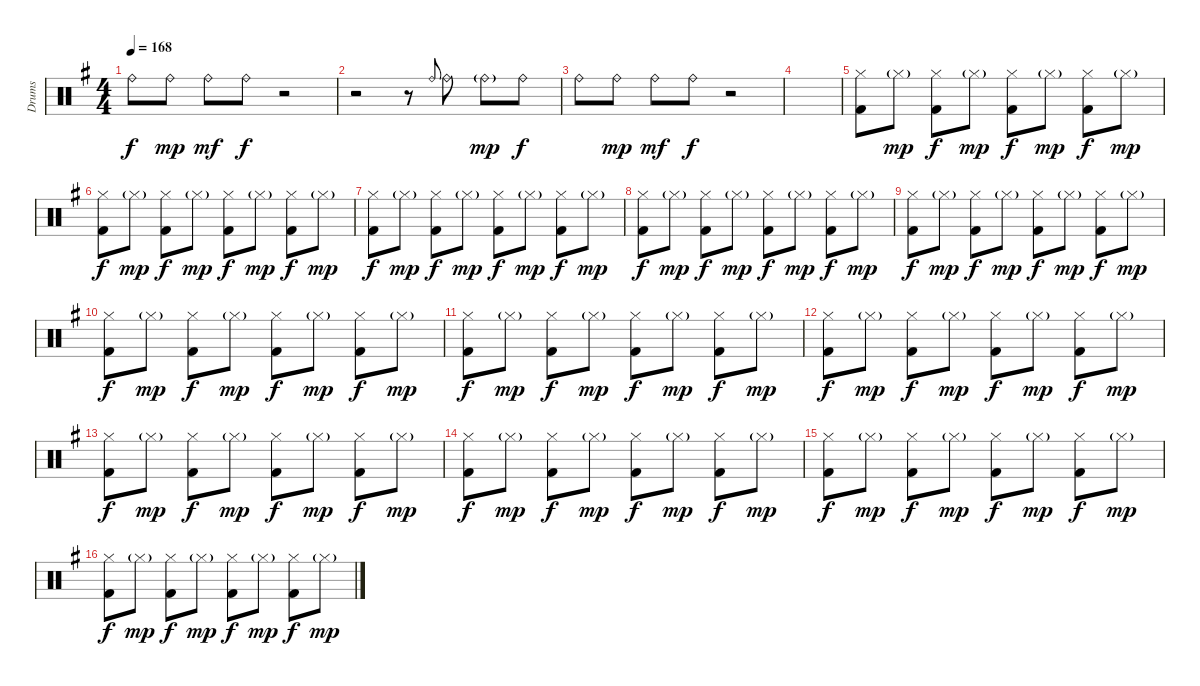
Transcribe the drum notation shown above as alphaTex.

\track ("Drums" "Drums") {instrument percussion}
\staff {score}
\articulation defaults
\ts (4 4)
\tempo 168
\clef neutral
\ks g "Ride (bell)".8{dy f} "Ride (bell)".8{dy mp} "Ride (bell)".8{dy mf} "Ride (bell)".8{dy f}
r.2 |
r.2 r.8 "Ride (bell)".8{gr onbeat} "Ride (bell)".8 "Ride (bell)"{g}.8{dy mp} "Ride (bell)".8{dy f} |
"Ride (bell)".8 "Ride (bell)".8{dy mp} "Ride (bell)".8{dy mf} "Ride (bell)".8{dy f} r.2 |
|
("Hi-Hat (closed)" "Kick (hit) 2").8 "Hi-Hat (closed)"{g}.8{dy mp} ("Hi-Hat (closed)" "Kick (hit) 2").8{dy f} "Hi-Hat (closed)"{g}.8{dy mp} ("Hi-Hat (closed)" "Kick (hit) 2").8{dy f} "Hi-Hat (closed)"{g}.8{dy mp} ("Hi-Hat (closed)" "Kick (hit) 2").8{dy f} "Hi-Hat (closed)"{g}.8{dy mp} |
("Hi-Hat (closed)" "Kick (hit) 2").8{dy f} "Hi-Hat (closed)"{g}.8{dy mp} ("Hi-Hat (closed)" "Kick (hit) 2").8{dy f} "Hi-Hat (closed)"{g}.8{dy mp} ("Hi-Hat (closed)" "Kick (hit) 2").8{dy f} "Hi-Hat (closed)"{g}.8{dy mp} ("Hi-Hat (closed)" "Kick (hit) 2").8{dy f} "Hi-Hat (closed)"{g}.8{dy mp} |
("Hi-Hat (closed)" "Kick (hit) 2").8{dy f} "Hi-Hat (closed)"{g}.8{dy mp} ("Hi-Hat (closed)" "Kick (hit) 2").8{dy f} "Hi-Hat (closed)"{g}.8{dy mp} ("Hi-Hat (closed)" "Kick (hit) 2").8{dy f} "Hi-Hat (closed)"{g}.8{dy mp} ("Hi-Hat (closed)" "Kick (hit) 2").8{dy f} "Hi-Hat (closed)"{g}.8{dy mp} |
("Hi-Hat (closed)" "Kick (hit) 2").8{dy f} "Hi-Hat (closed)"{g}.8{dy mp} ("Hi-Hat (closed)" "Kick (hit) 2").8{dy f} "Hi-Hat (closed)"{g}.8{dy mp} ("Hi-Hat (closed)" "Kick (hit) 2").8{dy f} "Hi-Hat (closed)"{g}.8{dy mp} ("Hi-Hat (closed)" "Kick (hit) 2").8{dy f} "Hi-Hat (closed)"{g}.8{dy mp} |
("Hi-Hat (closed)" "Kick (hit) 2").8{dy f} "Hi-Hat (closed)"{g}.8{dy mp} ("Hi-Hat (closed)" "Kick (hit) 2").8{dy f} "Hi-Hat (closed)"{g}.8{dy mp} ("Hi-Hat (closed)" "Kick (hit) 2").8{dy f} "Hi-Hat (closed)"{g}.8{dy mp} ("Hi-Hat (closed)" "Kick (hit) 2").8{dy f} "Hi-Hat (closed)"{g}.8{dy mp} |
("Hi-Hat (closed)" "Kick (hit) 2").8{dy f} "Hi-Hat (closed)"{g}.8{dy mp} ("Hi-Hat (closed)" "Kick (hit) 2").8{dy f} "Hi-Hat (closed)"{g}.8{dy mp} ("Hi-Hat (closed)" "Kick (hit) 2").8{dy f} "Hi-Hat (closed)"{g}.8{dy mp} ("Hi-Hat (closed)" "Kick (hit) 2").8{dy f} "Hi-Hat (closed)"{g}.8{dy mp} |
("Hi-Hat (closed)" "Kick (hit) 2").8{dy f} "Hi-Hat (closed)"{g}.8{dy mp} ("Hi-Hat (closed)" "Kick (hit) 2").8{dy f} "Hi-Hat (closed)"{g}.8{dy mp} ("Hi-Hat (closed)" "Kick (hit) 2").8{dy f} "Hi-Hat (closed)"{g}.8{dy mp} ("Hi-Hat (closed)" "Kick (hit) 2").8{dy f} "Hi-Hat (closed)"{g}.8{dy mp} |
("Hi-Hat (closed)" "Kick (hit) 2").8{dy f} "Hi-Hat (closed)"{g}.8{dy mp} ("Hi-Hat (closed)" "Kick (hit) 2").8{dy f} "Hi-Hat (closed)"{g}.8{dy mp} ("Hi-Hat (closed)" "Kick (hit) 2").8{dy f} "Hi-Hat (closed)"{g}.8{dy mp} ("Hi-Hat (closed)" "Kick (hit) 2").8{dy f} "Hi-Hat (closed)"{g}.8{dy mp} |
("Hi-Hat (closed)" "Kick (hit) 2").8{dy f} "Hi-Hat (closed)"{g}.8{dy mp} ("Hi-Hat (closed)" "Kick (hit) 2").8{dy f} "Hi-Hat (closed)"{g}.8{dy mp} ("Hi-Hat (closed)" "Kick (hit) 2").8{dy f} "Hi-Hat (closed)"{g}.8{dy mp} ("Hi-Hat (closed)" "Kick (hit) 2").8{dy f} "Hi-Hat (closed)"{g}.8{dy mp} |
("Hi-Hat (closed)" "Kick (hit) 2").8{dy f} "Hi-Hat (closed)"{g}.8{dy mp} ("Hi-Hat (closed)" "Kick (hit) 2").8{dy f} "Hi-Hat (closed)"{g}.8{dy mp} ("Hi-Hat (closed)" "Kick (hit) 2").8{dy f} "Hi-Hat (closed)"{g}.8{dy mp} ("Hi-Hat (closed)" "Kick (hit) 2").8{dy f} "Hi-Hat (closed)"{g}.8{dy mp} |
("Hi-Hat (closed)" "Kick (hit) 2").8{dy f} "Hi-Hat (closed)"{g}.8{dy mp} ("Hi-Hat (closed)" "Kick (hit) 2").8{dy f} "Hi-Hat (closed)"{g}.8{dy mp} ("Hi-Hat (closed)" "Kick (hit) 2").8{dy f} "Hi-Hat (closed)"{g}.8{dy mp} ("Hi-Hat (closed)" "Kick (hit) 2").8{dy f} "Hi-Hat (closed)"{g}.8{dy mp} |
("Hi-Hat (closed)" "Kick (hit) 2").8{dy f} "Hi-Hat (closed)"{g}.8{dy mp} ("Hi-Hat (closed)" "Kick (hit) 2").8{dy f} "Hi-Hat (closed)"{g}.8{dy mp} ("Hi-Hat (closed)" "Kick (hit) 2").8{dy f} "Hi-Hat (closed)"{g}.8{dy mp} ("Hi-Hat (closed)" "Kick (hit) 2").8{dy f} "Hi-Hat (closed)"{g}.8{dy mp}
